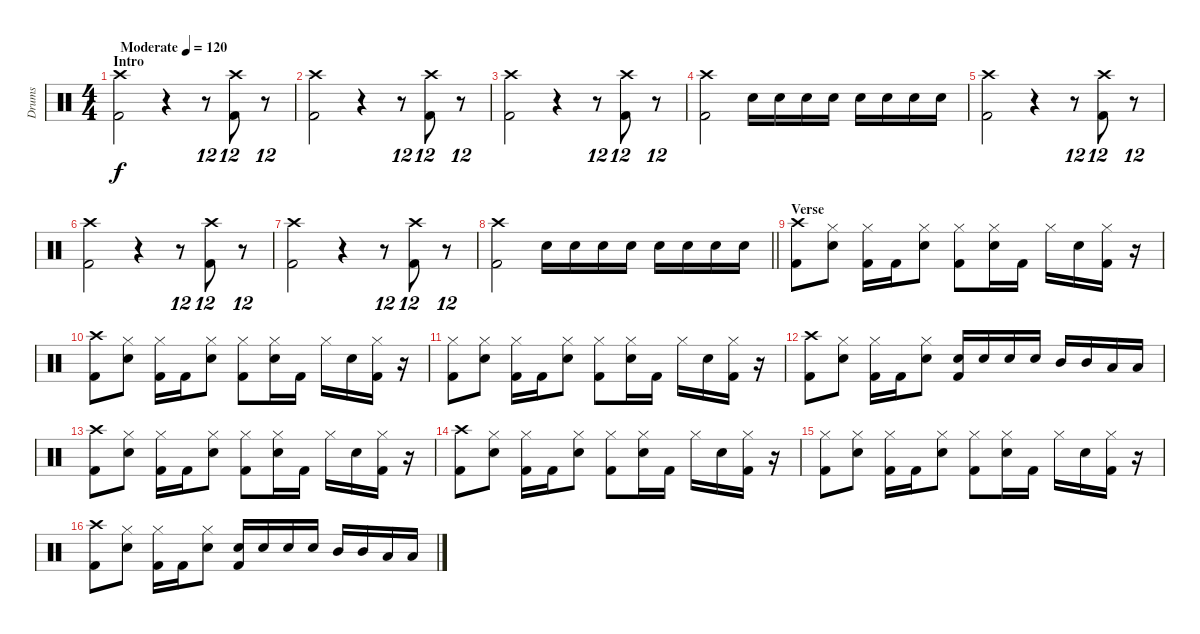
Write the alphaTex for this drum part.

\track ("Drums" "Drums") {instrument percussion}
\staff {score}
\articulation defaults
\ts (4 4)
\section ("" "Intro")
\tempo (120 "Moderate")
\clef neutral
\ks c
("Crash high (hit)" "Kick (hit) 2").2{dy f} r.4 r.8{tu (12 8)} ("Crash high (hit)" "Kick (hit) 2").8{tu (12 8)} r.8{tu (12 8)} |
("Crash high (hit)" "Kick (hit) 2").2 r.4 r.8{tu (12 8)} ("Crash high (hit)" "Kick (hit) 2").8{tu (12 8)} r.8{tu (12 8)} |
("Crash high (hit)" "Kick (hit) 2").2 r.4 r.8{tu (12 8)} ("Crash high (hit)" "Kick (hit) 2").8{tu (12 8)} r.8{tu (12 8)} |
("Crash high (hit)" "Kick (hit) 2").2 "Snare (hit) 2".16{volume 16} "Snare (hit) 2".16{volume 13} "Snare (hit) 2".16 "Snare (hit) 2".16 "Snare (hit) 2".16{volume 16} "Snare (hit) 2".16{volume 13} "Snare (hit) 2".16 "Snare (hit) 2".16 |
("Crash high (hit)" "Kick (hit) 2").2 r.4 r.8{tu (12 8)} ("Crash high (hit)" "Kick (hit) 2").8{tu (12 8)} r.8{tu (12 8)} |
("Crash high (hit)" "Kick (hit) 2").2 r.4 r.8{tu (12 8)} ("Crash high (hit)" "Kick (hit) 2").8{tu (12 8)} r.8{tu (12 8)} |
("Crash high (hit)" "Kick (hit) 2").2 r.4 r.8{tu (12 8)} ("Crash high (hit)" "Kick (hit) 2").8{tu (12 8)} r.8{tu (12 8)} |
\barLineRight lightlight
("Crash high (hit)" "Kick (hit) 2").2 "Snare (hit) 2".16{volume 16} "Snare (hit) 2".16{volume 13} "Snare (hit) 2".16 "Snare (hit) 2".16 "Snare (hit) 2".16{volume 16} "Snare (hit) 2".16{volume 13} "Snare (hit) 2".16 "Snare (hit) 2".16 |
\section ("" "Verse")
("Crash high (hit)" "Kick (hit) 2").8 ("Hi-Hat (closed)" "Snare (hit) 2").8 ("Hi-Hat (closed)" "Kick (hit) 2").16 "Kick (hit) 2".16 ("Hi-Hat (closed)" "Snare (hit) 2").8 ("Hi-Hat (closed)" "Kick (hit) 2").8 ("Hi-Hat (closed)" "Snare (hit) 2").16 "Kick (hit) 2".16 "Hi-Hat (closed)".16 "Snare (hit) 2".16 ("Hi-Hat (closed)" "Kick (hit) 2").16 r.16 |
("Crash high (hit)" "Kick (hit) 2").8 ("Hi-Hat (closed)" "Snare (hit) 2").8 ("Hi-Hat (closed)" "Kick (hit) 2").16 "Kick (hit) 2".16 ("Hi-Hat (closed)" "Snare (hit) 2").8 ("Hi-Hat (closed)" "Kick (hit) 2").8 ("Hi-Hat (closed)" "Snare (hit) 2").16 "Kick (hit) 2".16 "Hi-Hat (closed)".16 "Snare (hit) 2".16 ("Hi-Hat (closed)" "Kick (hit) 2").16 r.16 |
("Hi-Hat (closed)" "Kick (hit) 2").8 ("Hi-Hat (closed)" "Snare (hit) 2").8 ("Hi-Hat (closed)" "Kick (hit) 2").16 "Kick (hit) 2".16 ("Hi-Hat (closed)" "Snare (hit) 2").8 ("Hi-Hat (closed)" "Kick (hit) 2").8 ("Hi-Hat (closed)" "Snare (hit) 2").16 "Kick (hit) 2".16 "Hi-Hat (closed)".16 "Snare (hit) 2".16 ("Hi-Hat (closed)" "Kick (hit) 2").16 r.16 |
("Crash high (hit)" "Kick (hit) 2").8 ("Hi-Hat (closed)" "Snare (hit) 2").8 ("Hi-Hat (closed)" "Kick (hit) 2").16 "Kick (hit) 2".16 ("Hi-Hat (closed)" "Snare (hit) 2").8 ("Snare (hit) 2" "Kick (hit) 2").16 "Snare (hit) 2".16 "Snare (hit) 2".16 "Snare (hit) 2".16 "Mid Tom (hit)".16 "Mid Tom (hit)".16 "Low Tom (hit)".16 "Low Tom (hit)".16 |
("Crash high (hit)" "Kick (hit) 2").8 ("Hi-Hat (closed)" "Snare (hit) 2").8 ("Hi-Hat (closed)" "Kick (hit) 2").16 "Kick (hit) 2".16 ("Hi-Hat (closed)" "Snare (hit) 2").8 ("Hi-Hat (closed)" "Kick (hit) 2").8 ("Hi-Hat (closed)" "Snare (hit) 2").16 "Kick (hit) 2".16 "Hi-Hat (closed)".16 "Snare (hit) 2".16 ("Hi-Hat (closed)" "Kick (hit) 2").16 r.16 |
("Crash high (hit)" "Kick (hit) 2").8 ("Hi-Hat (closed)" "Snare (hit) 2").8 ("Hi-Hat (closed)" "Kick (hit) 2").16 "Kick (hit) 2".16 ("Hi-Hat (closed)" "Snare (hit) 2").8 ("Hi-Hat (closed)" "Kick (hit) 2").8 ("Hi-Hat (closed)" "Snare (hit) 2").16 "Kick (hit) 2".16 "Hi-Hat (closed)".16 "Snare (hit) 2".16 ("Hi-Hat (closed)" "Kick (hit) 2").16 r.16 |
("Hi-Hat (closed)" "Kick (hit) 2").8 ("Hi-Hat (closed)" "Snare (hit) 2").8 ("Hi-Hat (closed)" "Kick (hit) 2").16 "Kick (hit) 2".16 ("Hi-Hat (closed)" "Snare (hit) 2").8 ("Hi-Hat (closed)" "Kick (hit) 2").8 ("Hi-Hat (closed)" "Snare (hit) 2").16 "Kick (hit) 2".16 "Hi-Hat (closed)".16 "Snare (hit) 2".16 ("Hi-Hat (closed)" "Kick (hit) 2").16 r.16 |
("Crash high (hit)" "Kick (hit) 2").8 ("Hi-Hat (closed)" "Snare (hit) 2").8 ("Hi-Hat (closed)" "Kick (hit) 2").16 "Kick (hit) 2".16 ("Hi-Hat (closed)" "Snare (hit) 2").8 ("Snare (hit) 2" "Kick (hit) 2").16 "Snare (hit) 2".16 "Snare (hit) 2".16 "Snare (hit) 2".16 "Mid Tom (hit)".16 "Mid Tom (hit)".16 "Low Tom (hit)".16 "Low Tom (hit)".16
